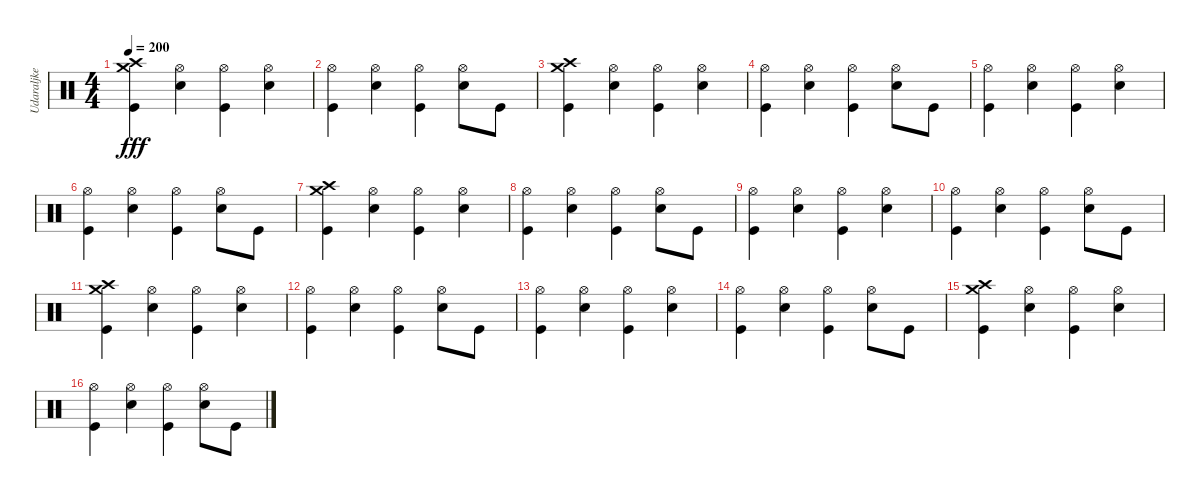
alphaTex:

\track ("Udaraljke" "Udaraljke") {instrument percussion}
\staff {score}
\articulation defaults
\ts (4 4)
\tempo 200
\clef neutral
\ks c
("Crash high (hit)" "Crash medium (hit)" "Kick (hit)").4{dy fff} ("Hi-Hat (open)" "Electric Snare (hit)").4 ("Hi-Hat (open)" "Kick (hit)").4 ("Hi-Hat (open)" "Electric Snare (hit)").4 |
("Hi-Hat (open)" "Kick (hit)").4 ("Hi-Hat (open)" "Electric Snare (hit)").4 ("Hi-Hat (open)" "Kick (hit)").4 ("Hi-Hat (open)" "Electric Snare (hit)").8 "Kick (hit)".8 |
("Crash high (hit)" "Crash medium (hit)" "Kick (hit)").4 ("Hi-Hat (open)" "Electric Snare (hit)").4 ("Hi-Hat (open)" "Kick (hit)").4 ("Hi-Hat (open)" "Electric Snare (hit)").4 |
("Hi-Hat (open)" "Kick (hit)").4 ("Hi-Hat (open)" "Electric Snare (hit)").4 ("Hi-Hat (open)" "Kick (hit)").4 ("Hi-Hat (open)" "Electric Snare (hit)").8 "Kick (hit)".8 |
("Hi-Hat (open)" "Kick (hit)").4 ("Hi-Hat (open)" "Electric Snare (hit)").4 ("Hi-Hat (open)" "Kick (hit)").4 ("Hi-Hat (open)" "Electric Snare (hit)").4 |
("Hi-Hat (open)" "Kick (hit)").4 ("Hi-Hat (open)" "Electric Snare (hit)").4 ("Hi-Hat (open)" "Kick (hit)").4 ("Hi-Hat (open)" "Electric Snare (hit)").8 "Kick (hit)".8 |
("Crash high (hit)" "Crash medium (hit)" "Kick (hit)").4 ("Hi-Hat (open)" "Electric Snare (hit)").4 ("Hi-Hat (open)" "Kick (hit)").4 ("Hi-Hat (open)" "Electric Snare (hit)").4 |
("Hi-Hat (open)" "Kick (hit)").4 ("Hi-Hat (open)" "Electric Snare (hit)").4 ("Hi-Hat (open)" "Kick (hit)").4 ("Hi-Hat (open)" "Electric Snare (hit)").8 "Kick (hit)".8 |
("Hi-Hat (open)" "Kick (hit)").4 ("Hi-Hat (open)" "Electric Snare (hit)").4 ("Hi-Hat (open)" "Kick (hit)").4 ("Hi-Hat (open)" "Electric Snare (hit)").4 |
("Hi-Hat (open)" "Kick (hit)").4 ("Hi-Hat (open)" "Electric Snare (hit)").4 ("Hi-Hat (open)" "Kick (hit)").4 ("Hi-Hat (open)" "Electric Snare (hit)").8 "Kick (hit)".8 |
("Crash high (hit)" "Crash medium (hit)" "Kick (hit)").4 ("Hi-Hat (open)" "Electric Snare (hit)").4 ("Hi-Hat (open)" "Kick (hit)").4 ("Hi-Hat (open)" "Electric Snare (hit)").4 |
("Hi-Hat (open)" "Kick (hit)").4 ("Hi-Hat (open)" "Electric Snare (hit)").4 ("Hi-Hat (open)" "Kick (hit)").4 ("Hi-Hat (open)" "Electric Snare (hit)").8 "Kick (hit)".8 |
("Hi-Hat (open)" "Kick (hit)").4 ("Hi-Hat (open)" "Electric Snare (hit)").4 ("Hi-Hat (open)" "Kick (hit)").4 ("Hi-Hat (open)" "Electric Snare (hit)").4 |
("Hi-Hat (open)" "Kick (hit)").4 ("Hi-Hat (open)" "Electric Snare (hit)").4 ("Hi-Hat (open)" "Kick (hit)").4 ("Hi-Hat (open)" "Electric Snare (hit)").8 "Kick (hit)".8 |
("Crash high (hit)" "Crash medium (hit)" "Kick (hit)").4 ("Hi-Hat (open)" "Electric Snare (hit)").4 ("Hi-Hat (open)" "Kick (hit)").4 ("Hi-Hat (open)" "Electric Snare (hit)").4 |
("Hi-Hat (open)" "Kick (hit)").4 ("Hi-Hat (open)" "Electric Snare (hit)").4 ("Hi-Hat (open)" "Kick (hit)").4 ("Hi-Hat (open)" "Electric Snare (hit)").8 "Kick (hit)".8
